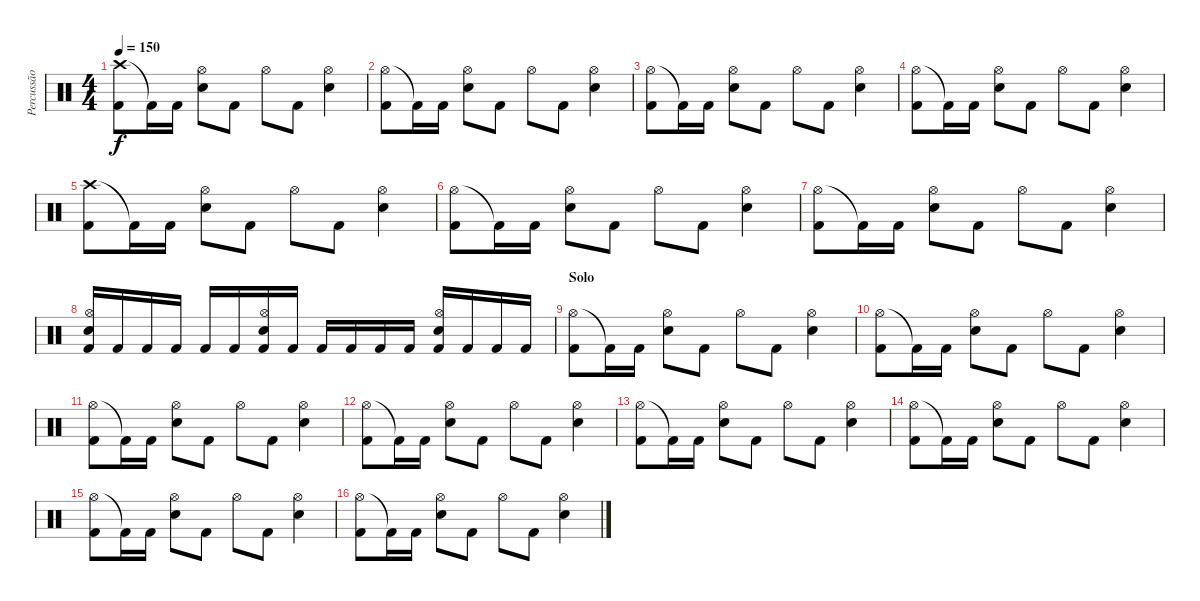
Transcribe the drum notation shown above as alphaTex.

\track ("Percussão" "Percussão") {instrument percussion}
\staff {score}
\articulation defaults
\ts (4 4)
\tempo 150
\clef neutral
\ks c
("Crash high (hit)" "Kick (hit) 2").8{dy f} "Kick (hit) 2"{t}.16 "Kick (hit) 2".16 ("Hi-Hat (open)" "Electric Snare (hit)").8 "Kick (hit) 2".8 "Hi-Hat (open)".8 "Kick (hit) 2".8 ("Hi-Hat (open)" "Electric Snare (hit)").4 |
("Hi-Hat (open)" "Kick (hit) 2").8 "Kick (hit) 2"{t}.16 "Kick (hit) 2".16 ("Hi-Hat (open)" "Electric Snare (hit)").8 "Kick (hit) 2".8 "Hi-Hat (open)".8 "Kick (hit) 2".8 ("Hi-Hat (open)" "Electric Snare (hit)").4 |
("Hi-Hat (open)" "Kick (hit) 2").8 "Kick (hit) 2"{t}.16 "Kick (hit) 2".16 ("Hi-Hat (open)" "Electric Snare (hit)").8 "Kick (hit) 2".8 "Hi-Hat (open)".8 "Kick (hit) 2".8 ("Hi-Hat (open)" "Electric Snare (hit)").4 |
("Hi-Hat (open)" "Kick (hit) 2").8 "Kick (hit) 2"{t}.16 "Kick (hit) 2".16 ("Hi-Hat (open)" "Electric Snare (hit)").8 "Kick (hit) 2".8 "Hi-Hat (open)".8 "Kick (hit) 2".8 ("Hi-Hat (open)" "Electric Snare (hit)").4 |
("Crash high (hit)" "Kick (hit) 2").8 "Kick (hit) 2"{t}.16 "Kick (hit) 2".16 ("Hi-Hat (open)" "Electric Snare (hit)").8 "Kick (hit) 2".8 "Hi-Hat (open)".8 "Kick (hit) 2".8 ("Hi-Hat (open)" "Electric Snare (hit)").4 |
("Hi-Hat (open)" "Kick (hit) 2").8 "Kick (hit) 2"{t}.16 "Kick (hit) 2".16 ("Hi-Hat (open)" "Electric Snare (hit)").8 "Kick (hit) 2".8 "Hi-Hat (open)".8 "Kick (hit) 2".8 ("Hi-Hat (open)" "Electric Snare (hit)").4 |
("Hi-Hat (open)" "Kick (hit) 2").8 "Kick (hit) 2"{t}.16 "Kick (hit) 2".16 ("Hi-Hat (open)" "Electric Snare (hit)").8 "Kick (hit) 2".8 "Hi-Hat (open)".8 "Kick (hit) 2".8 ("Hi-Hat (open)" "Electric Snare (hit)").4 |
("Hi-Hat (open)" "Electric Snare (hit)" "Kick (hit) 2").16 "Kick (hit) 2".16 "Kick (hit) 2".16 "Kick (hit) 2".16 "Kick (hit) 2".16 "Kick (hit) 2".16 ("Hi-Hat (open)" "Electric Snare (hit)" "Kick (hit) 2").16 "Kick (hit) 2".16 "Kick (hit) 2".16 "Kick (hit) 2".16 "Kick (hit) 2".16 "Kick (hit) 2".16 ("Hi-Hat (open)" "Electric Snare (hit)" "Kick (hit) 2").16 "Kick (hit) 2".16 "Kick (hit) 2".16 "Kick (hit) 2".16 |
\section ("" "Solo")
("Hi-Hat (open)" "Kick (hit) 2").8 "Kick (hit) 2"{t}.16 "Kick (hit) 2".16 ("Hi-Hat (open)" "Electric Snare (hit)").8 "Kick (hit) 2".8 "Hi-Hat (open)".8 "Kick (hit) 2".8 ("Hi-Hat (open)" "Electric Snare (hit)").4 |
("Hi-Hat (open)" "Kick (hit) 2").8 "Kick (hit) 2"{t}.16 "Kick (hit) 2".16 ("Hi-Hat (open)" "Electric Snare (hit)").8 "Kick (hit) 2".8 "Hi-Hat (open)".8 "Kick (hit) 2".8 ("Hi-Hat (open)" "Electric Snare (hit)").4 |
("Hi-Hat (open)" "Kick (hit) 2").8 "Kick (hit) 2"{t}.16 "Kick (hit) 2".16 ("Hi-Hat (open)" "Electric Snare (hit)").8 "Kick (hit) 2".8 "Hi-Hat (open)".8 "Kick (hit) 2".8 ("Hi-Hat (open)" "Electric Snare (hit)").4 |
("Hi-Hat (open)" "Kick (hit) 2").8 "Kick (hit) 2"{t}.16 "Kick (hit) 2".16 ("Hi-Hat (open)" "Electric Snare (hit)").8 "Kick (hit) 2".8 "Hi-Hat (open)".8 "Kick (hit) 2".8 ("Hi-Hat (open)" "Electric Snare (hit)").4 |
("Hi-Hat (open)" "Kick (hit) 2").8 "Kick (hit) 2"{t}.16 "Kick (hit) 2".16 ("Hi-Hat (open)" "Electric Snare (hit)").8 "Kick (hit) 2".8 "Hi-Hat (open)".8 "Kick (hit) 2".8 ("Hi-Hat (open)" "Electric Snare (hit)").4 |
("Hi-Hat (open)" "Kick (hit) 2").8 "Kick (hit) 2"{t}.16 "Kick (hit) 2".16 ("Hi-Hat (open)" "Electric Snare (hit)").8 "Kick (hit) 2".8 "Hi-Hat (open)".8 "Kick (hit) 2".8 ("Hi-Hat (open)" "Electric Snare (hit)").4 |
("Hi-Hat (open)" "Kick (hit) 2").8 "Kick (hit) 2"{t}.16 "Kick (hit) 2".16 ("Hi-Hat (open)" "Electric Snare (hit)").8 "Kick (hit) 2".8 "Hi-Hat (open)".8 "Kick (hit) 2".8 ("Hi-Hat (open)" "Electric Snare (hit)").4 |
("Hi-Hat (open)" "Kick (hit) 2").8 "Kick (hit) 2"{t}.16 "Kick (hit) 2".16 ("Hi-Hat (open)" "Electric Snare (hit)").8 "Kick (hit) 2".8 "Hi-Hat (open)".8 "Kick (hit) 2".8 ("Hi-Hat (open)" "Electric Snare (hit)").4
